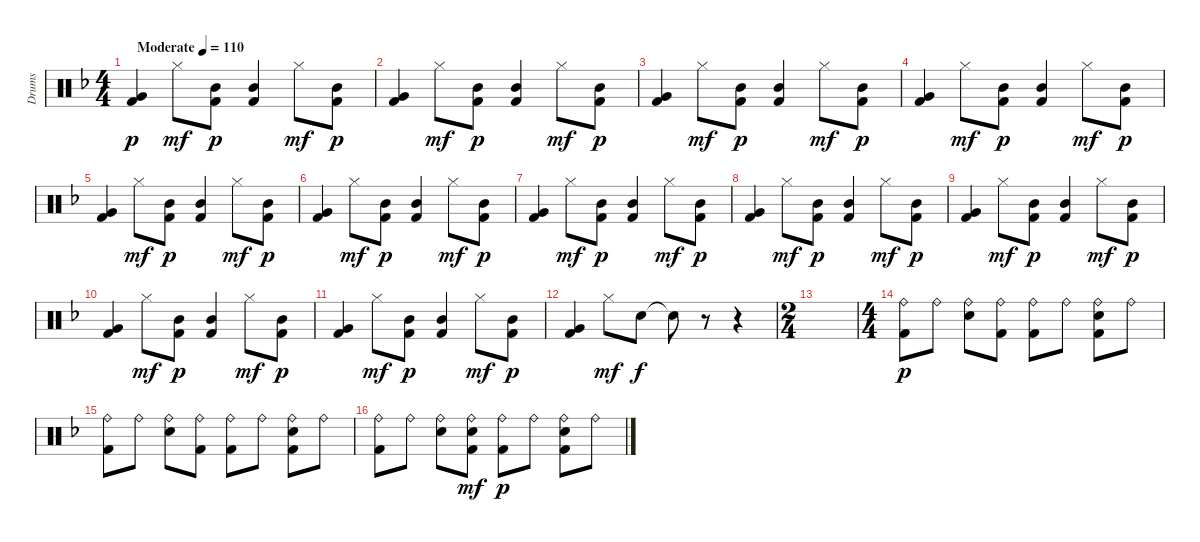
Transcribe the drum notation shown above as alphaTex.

\track ("Drums" "Drums") {instrument percussion}
\staff {score}
\articulation defaults
\ts (4 4)
\tempo (110 "Moderate")
\clef neutral
\ks f
("Very Low Tom (hit)" "Kick (hit) 2").4{dy p} "Hi-Hat (closed)".8{dy mf} ("Mid Tom (hit)" "Kick (hit) 2").8{dy p} ("Mid Tom (hit)" "Kick (hit) 2").4 "Hi-Hat (closed)".8{dy mf} ("Mid Tom (hit)" "Kick (hit) 2").8{dy p} |
("Very Low Tom (hit)" "Kick (hit) 2").4 "Hi-Hat (closed)".8{dy mf} ("Mid Tom (hit)" "Kick (hit) 2").8{dy p} ("Mid Tom (hit)" "Kick (hit) 2").4 "Hi-Hat (closed)".8{dy mf} ("Mid Tom (hit)" "Kick (hit) 2").8{dy p} |
("Very Low Tom (hit)" "Kick (hit) 2").4 "Hi-Hat (closed)".8{dy mf} ("Mid Tom (hit)" "Kick (hit) 2").8{dy p} ("Mid Tom (hit)" "Kick (hit) 2").4 "Hi-Hat (closed)".8{dy mf} ("Mid Tom (hit)" "Kick (hit) 2").8{dy p} |
("Very Low Tom (hit)" "Kick (hit) 2").4 "Hi-Hat (closed)".8{dy mf} ("Mid Tom (hit)" "Kick (hit) 2").8{dy p} ("Mid Tom (hit)" "Kick (hit) 2").4 "Hi-Hat (closed)".8{dy mf} ("Mid Tom (hit)" "Kick (hit) 2").8{dy p} |
("Very Low Tom (hit)" "Kick (hit) 2").4 "Hi-Hat (closed)".8{dy mf} ("Mid Tom (hit)" "Kick (hit) 2").8{dy p} ("Mid Tom (hit)" "Kick (hit) 2").4 "Hi-Hat (closed)".8{dy mf} ("Mid Tom (hit)" "Kick (hit) 2").8{dy p} |
("Very Low Tom (hit)" "Kick (hit) 2").4 "Hi-Hat (closed)".8{dy mf} ("Mid Tom (hit)" "Kick (hit) 2").8{dy p} ("Mid Tom (hit)" "Kick (hit) 2").4 "Hi-Hat (closed)".8{dy mf} ("Mid Tom (hit)" "Kick (hit) 2").8{dy p} |
("Very Low Tom (hit)" "Kick (hit) 2").4 "Hi-Hat (closed)".8{dy mf} ("Mid Tom (hit)" "Kick (hit) 2").8{dy p} ("Mid Tom (hit)" "Kick (hit) 2").4 "Hi-Hat (closed)".8{dy mf} ("Mid Tom (hit)" "Kick (hit) 2").8{dy p} |
("Very Low Tom (hit)" "Kick (hit) 2").4 "Hi-Hat (closed)".8{dy mf} ("Mid Tom (hit)" "Kick (hit) 2").8{dy p} ("Mid Tom (hit)" "Kick (hit) 2").4 "Hi-Hat (closed)".8{dy mf} ("Mid Tom (hit)" "Kick (hit) 2").8{dy p} |
("Very Low Tom (hit)" "Kick (hit) 2").4 "Hi-Hat (closed)".8{dy mf} ("Mid Tom (hit)" "Kick (hit) 2").8{dy p} ("Mid Tom (hit)" "Kick (hit) 2").4 "Hi-Hat (closed)".8{dy mf} ("Mid Tom (hit)" "Kick (hit) 2").8{dy p} |
("Very Low Tom (hit)" "Kick (hit) 2").4 "Hi-Hat (closed)".8{dy mf} ("Mid Tom (hit)" "Kick (hit) 2").8{dy p} ("Mid Tom (hit)" "Kick (hit) 2").4 "Hi-Hat (closed)".8{dy mf} ("Mid Tom (hit)" "Kick (hit) 2").8{dy p} |
("Very Low Tom (hit)" "Kick (hit) 2").4 "Hi-Hat (closed)".8{dy mf} ("Mid Tom (hit)" "Kick (hit) 2").8{dy p} ("Mid Tom (hit)" "Kick (hit) 2").4 "Hi-Hat (closed)".8{dy mf} ("Mid Tom (hit)" "Kick (hit) 2").8{dy p} |
("Very Low Tom (hit)" "Kick (hit) 2").4 "Hi-Hat (closed)".8{dy mf} "Electric Snare (hit)".8{dy f} "Snare (hit)"{t}.8 r.8 r.4 |
\ts (2 4)
|
\ts (4 4)
("Ride (bell)" "Kick (hit) 2").8{dy p} "Ride (bell)".8 ("Ride (bell)" "Electric Snare (hit)").8 ("Ride (bell)" "Kick (hit) 2").8 ("Ride (bell)" "Kick (hit) 2").8 "Ride (bell)".8 ("Ride (bell)" "Electric Snare (hit)" "Kick (hit) 2").8 "Ride (bell)".8 |
("Ride (bell)" "Kick (hit) 2").8 "Ride (bell)".8 ("Ride (bell)" "Electric Snare (hit)").8 ("Ride (bell)" "Kick (hit) 2").8 ("Ride (bell)" "Kick (hit) 2").8 "Ride (bell)".8 ("Ride (bell)" "Electric Snare (hit)" "Kick (hit) 2").8 "Ride (bell)".8 |
("Ride (bell)" "Kick (hit) 2").8 "Ride (bell)".8 ("Ride (bell)" "Electric Snare (hit)").8 ("Ride (bell)" "Electric Snare (hit)" "Kick (hit) 2").8{dy mf} ("Ride (bell)" "Kick (hit) 2").8{dy p} "Ride (bell)".8 ("Ride (bell)" "Electric Snare (hit)" "Kick (hit) 2").8 "Ride (bell)".8
